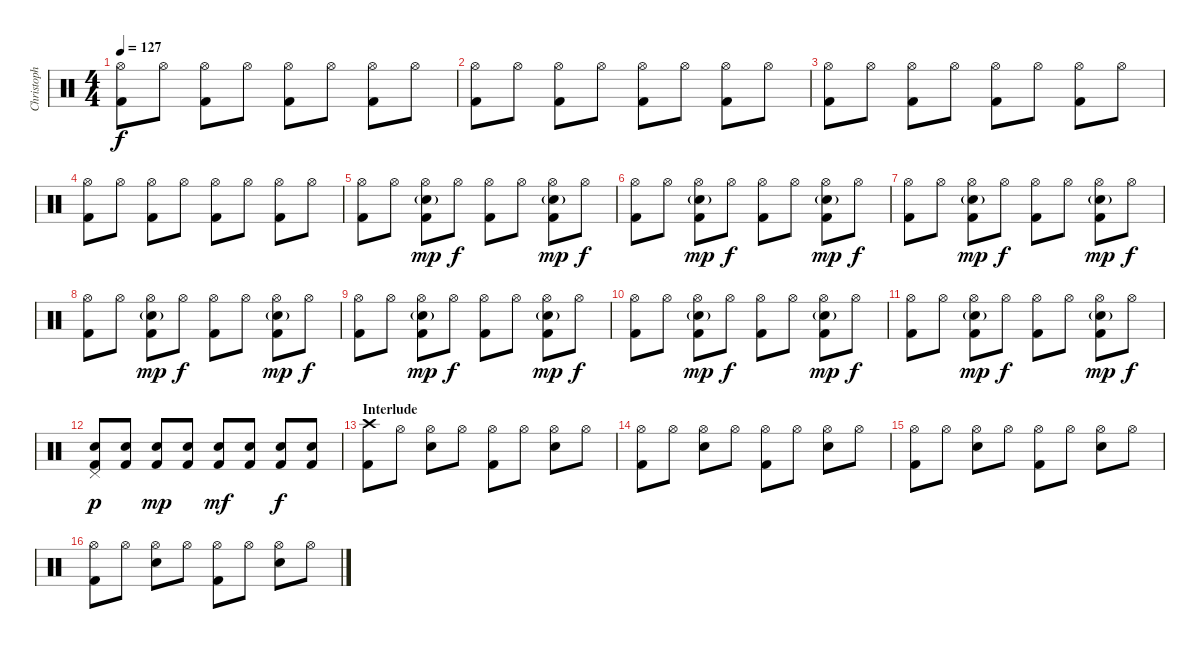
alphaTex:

\track ("Christoph Doom Schneider - Drums" "Christoph ") {instrument percussion}
\staff {score}
\articulation defaults
\ts (4 4)
\tempo 127
\clef neutral
\ks c
("Hi-Hat (open)" "Kick (hit) 2").8{dy f} "Hi-Hat (open)".8 ("Hi-Hat (open)" "Kick (hit) 2").8 "Hi-Hat (open)".8 ("Hi-Hat (open)" "Kick (hit) 2").8 "Hi-Hat (open)".8 ("Hi-Hat (open)" "Kick (hit) 2").8 "Hi-Hat (open)".8 |
("Hi-Hat (open)" "Kick (hit) 2").8 "Hi-Hat (open)".8 ("Hi-Hat (open)" "Kick (hit) 2").8 "Hi-Hat (open)".8 ("Hi-Hat (open)" "Kick (hit) 2").8 "Hi-Hat (open)".8 ("Hi-Hat (open)" "Kick (hit) 2").8 "Hi-Hat (open)".8 |
("Hi-Hat (open)" "Kick (hit) 2").8 "Hi-Hat (open)".8 ("Hi-Hat (open)" "Kick (hit) 2").8 "Hi-Hat (open)".8 ("Hi-Hat (open)" "Kick (hit) 2").8 "Hi-Hat (open)".8 ("Hi-Hat (open)" "Kick (hit) 2").8 "Hi-Hat (open)".8 |
("Hi-Hat (open)" "Kick (hit) 2").8 "Hi-Hat (open)".8 ("Hi-Hat (open)" "Kick (hit) 2").8 "Hi-Hat (open)".8 ("Hi-Hat (open)" "Kick (hit) 2").8 "Hi-Hat (open)".8 ("Hi-Hat (open)" "Kick (hit) 2").8 "Hi-Hat (open)".8 |
("Hi-Hat (open)" "Kick (hit) 2").8 "Hi-Hat (open)".8 ("Hi-Hat (open)" "Electric Snare (hit)"{g} "Kick (hit) 2").8{dy mp} "Hi-Hat (open)".8{dy f} ("Hi-Hat (open)" "Kick (hit) 2").8 "Hi-Hat (open)".8 ("Hi-Hat (open)" "Electric Snare (hit)"{g} "Kick (hit) 2").8{dy mp} "Hi-Hat (open)".8{dy f} |
("Hi-Hat (open)" "Kick (hit) 2").8 "Hi-Hat (open)".8 ("Hi-Hat (open)" "Electric Snare (hit)"{g} "Kick (hit) 2").8{dy mp} "Hi-Hat (open)".8{dy f} ("Hi-Hat (open)" "Kick (hit) 2").8 "Hi-Hat (open)".8 ("Hi-Hat (open)" "Electric Snare (hit)"{g} "Kick (hit) 2").8{dy mp} "Hi-Hat (open)".8{dy f} |
("Hi-Hat (open)" "Kick (hit) 2").8 "Hi-Hat (open)".8 ("Hi-Hat (open)" "Electric Snare (hit)"{g} "Kick (hit) 2").8{dy mp} "Hi-Hat (open)".8{dy f} ("Hi-Hat (open)" "Kick (hit) 2").8 "Hi-Hat (open)".8 ("Hi-Hat (open)" "Electric Snare (hit)"{g} "Kick (hit) 2").8{dy mp} "Hi-Hat (open)".8{dy f} |
("Hi-Hat (open)" "Kick (hit) 2").8 "Hi-Hat (open)".8 ("Hi-Hat (open)" "Electric Snare (hit)"{g} "Kick (hit) 2").8{dy mp} "Hi-Hat (open)".8{dy f} ("Hi-Hat (open)" "Kick (hit) 2").8 "Hi-Hat (open)".8 ("Hi-Hat (open)" "Electric Snare (hit)"{g} "Kick (hit) 2").8{dy mp} "Hi-Hat (open)".8{dy f} |
("Hi-Hat (open)" "Kick (hit) 2").8 "Hi-Hat (open)".8 ("Hi-Hat (open)" "Electric Snare (hit)"{g} "Kick (hit) 2").8{dy mp} "Hi-Hat (open)".8{dy f} ("Hi-Hat (open)" "Kick (hit) 2").8 "Hi-Hat (open)".8 ("Hi-Hat (open)" "Electric Snare (hit)"{g} "Kick (hit) 2").8{dy mp} "Hi-Hat (open)".8{dy f} |
("Hi-Hat (open)" "Kick (hit) 2").8 "Hi-Hat (open)".8 ("Hi-Hat (open)" "Electric Snare (hit)"{g} "Kick (hit) 2").8{dy mp} "Hi-Hat (open)".8{dy f} ("Hi-Hat (open)" "Kick (hit) 2").8 "Hi-Hat (open)".8 ("Hi-Hat (open)" "Electric Snare (hit)"{g} "Kick (hit) 2").8{dy mp} "Hi-Hat (open)".8{dy f} |
("Hi-Hat (open)" "Kick (hit) 2").8 "Hi-Hat (open)".8 ("Hi-Hat (open)" "Electric Snare (hit)"{g} "Kick (hit) 2").8{dy mp} "Hi-Hat (open)".8{dy f} ("Hi-Hat (open)" "Kick (hit) 2").8 "Hi-Hat (open)".8 ("Hi-Hat (open)" "Electric Snare (hit)"{g} "Kick (hit) 2").8{dy mp} "Hi-Hat (open)".8{dy f} |
("Pedal Hi-Hat (hit)" "Electric Snare (hit)" "Kick (hit) 2").8{dy p} ("Electric Snare (hit)" "Kick (hit) 2").8 ("Electric Snare (hit)" "Kick (hit) 2").8{dy mp} ("Electric Snare (hit)" "Kick (hit) 2").8 ("Electric Snare (hit)" "Kick (hit) 2").8{dy mf} ("Electric Snare (hit)" "Kick (hit) 2").8 ("Electric Snare (hit)" "Kick (hit) 2").8{dy f} ("Electric Snare (hit)" "Kick (hit) 2").8 |
\section ("" "Interlude")
("Crash high (hit)" "Kick (hit) 2").8 "Hi-Hat (open)".8 ("Hi-Hat (open)" "Electric Snare (hit)").8 "Hi-Hat (open)".8 ("Hi-Hat (open)" "Kick (hit) 2").8 "Hi-Hat (open)".8 ("Hi-Hat (open)" "Electric Snare (hit)").8 "Hi-Hat (open)".8 |
("Hi-Hat (open)" "Kick (hit) 2").8 "Hi-Hat (open)".8 ("Hi-Hat (open)" "Electric Snare (hit)").8 "Hi-Hat (open)".8 ("Hi-Hat (open)" "Kick (hit) 2").8 "Hi-Hat (open)".8 ("Hi-Hat (open)" "Electric Snare (hit)").8 "Hi-Hat (open)".8 |
("Hi-Hat (open)" "Kick (hit) 2").8 "Hi-Hat (open)".8 ("Hi-Hat (open)" "Electric Snare (hit)").8 "Hi-Hat (open)".8 ("Hi-Hat (open)" "Kick (hit) 2").8 "Hi-Hat (open)".8 ("Hi-Hat (open)" "Electric Snare (hit)").8 "Hi-Hat (open)".8 |
("Hi-Hat (open)" "Kick (hit) 2").8 "Hi-Hat (open)".8 ("Hi-Hat (open)" "Electric Snare (hit)").8 "Hi-Hat (open)".8 ("Hi-Hat (open)" "Kick (hit) 2").8 "Hi-Hat (open)".8 ("Hi-Hat (open)" "Electric Snare (hit)").8 "Hi-Hat (open)".8
